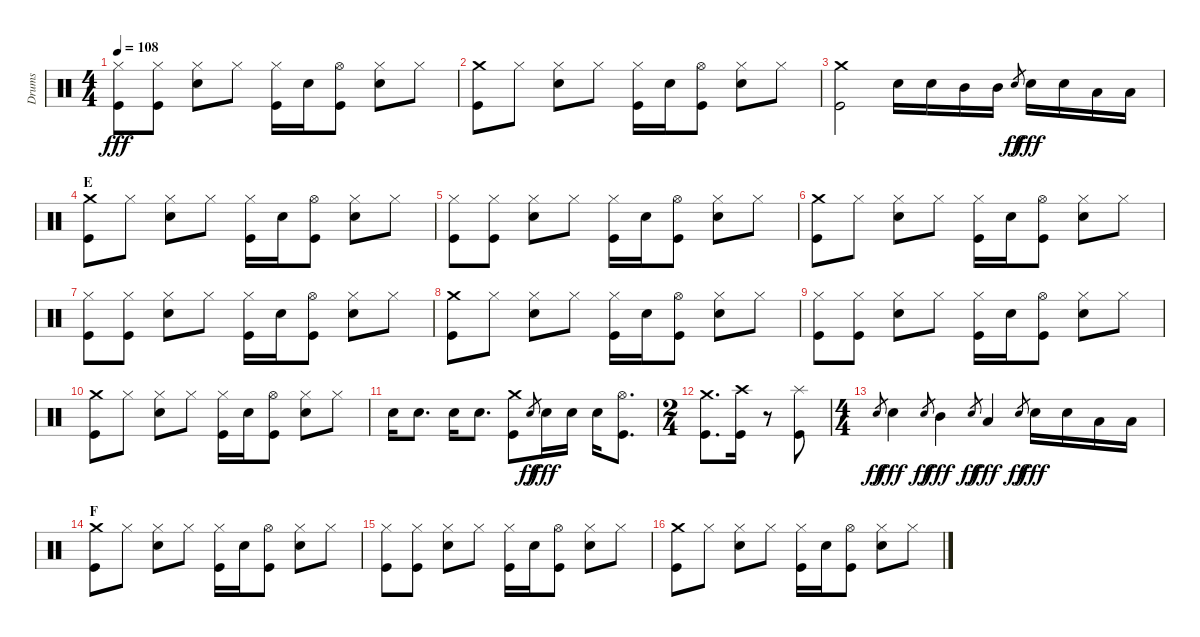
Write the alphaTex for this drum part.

\track ("Drums" "Drums") {instrument percussion}
\staff {score}
\articulation defaults
\ts (4 4)
\tempo 108
\clef neutral
\ks c
("Hi-Hat (closed)" "Kick (hit)").8{dy fff} ("Hi-Hat (closed)" "Kick (hit)").8 ("Hi-Hat (closed)" "Snare (hit) 2").8 "Hi-Hat (closed)".8 ("Hi-Hat (closed)" "Kick (hit)").16 "Snare (hit) 2".16 ("Hi-Hat (open)" "Kick (hit)").8 ("Hi-Hat (closed)" "Snare (hit) 2").8 "Hi-Hat (closed)".8 |
("Crash medium (hit)" "Kick (hit)").8 "Hi-Hat (closed)".8 ("Hi-Hat (closed)" "Snare (hit) 2").8 "Hi-Hat (closed)".8 ("Hi-Hat (closed)" "Kick (hit)").16 "Snare (hit) 2".16 ("Hi-Hat (open)" "Kick (hit)").8 ("Hi-Hat (closed)" "Snare (hit) 2").8 "Hi-Hat (closed)".8 |
("Crash medium (hit)" "Kick (hit)").2 "Snare (hit) 2".16 "Snare (hit) 2".16 "Mid Tom (hit)".16 "Mid Tom (hit)".16 "Snare (hit)".8{gr dy ff} "Snare (hit) 2".16{dy fff} "Snare (hit) 2".16 "Low Tom (hit)".16 "Low Tom (hit)".16 |
\section ("" "E")
("Crash medium (hit)" "Kick (hit)").8 "Hi-Hat (closed)".8 ("Hi-Hat (closed)" "Snare (hit) 2").8 "Hi-Hat (closed)".8 ("Hi-Hat (closed)" "Kick (hit)").16 "Snare (hit) 2".16 ("Hi-Hat (open)" "Kick (hit)").8 ("Hi-Hat (closed)" "Snare (hit) 2").8 "Hi-Hat (closed)".8 |
("Hi-Hat (closed)" "Kick (hit)").8 ("Hi-Hat (closed)" "Kick (hit)").8 ("Hi-Hat (closed)" "Snare (hit) 2").8 "Hi-Hat (closed)".8 ("Hi-Hat (closed)" "Kick (hit)").16 "Snare (hit) 2".16 ("Hi-Hat (open)" "Kick (hit)").8 ("Hi-Hat (closed)" "Snare (hit) 2").8 "Hi-Hat (closed)".8 |
("Crash medium (hit)" "Kick (hit)").8 "Hi-Hat (closed)".8 ("Hi-Hat (closed)" "Snare (hit) 2").8 "Hi-Hat (closed)".8 ("Hi-Hat (closed)" "Kick (hit)").16 "Snare (hit) 2".16 ("Hi-Hat (open)" "Kick (hit)").8 ("Hi-Hat (closed)" "Snare (hit) 2").8 "Hi-Hat (closed)".8 |
("Hi-Hat (closed)" "Kick (hit)").8 ("Hi-Hat (closed)" "Kick (hit)").8 ("Hi-Hat (closed)" "Snare (hit) 2").8 "Hi-Hat (closed)".8 ("Hi-Hat (closed)" "Kick (hit)").16 "Snare (hit) 2".16 ("Hi-Hat (open)" "Kick (hit)").8 ("Hi-Hat (closed)" "Snare (hit) 2").8 "Hi-Hat (closed)".8 |
("Crash medium (hit)" "Kick (hit)").8 "Hi-Hat (closed)".8 ("Hi-Hat (closed)" "Snare (hit) 2").8 "Hi-Hat (closed)".8 ("Hi-Hat (closed)" "Kick (hit)").16 "Snare (hit) 2".16 ("Hi-Hat (open)" "Kick (hit)").8 ("Hi-Hat (closed)" "Snare (hit) 2").8 "Hi-Hat (closed)".8 |
("Hi-Hat (closed)" "Kick (hit)").8 ("Hi-Hat (closed)" "Kick (hit)").8 ("Hi-Hat (closed)" "Snare (hit) 2").8 "Hi-Hat (closed)".8 ("Hi-Hat (closed)" "Kick (hit)").16 "Snare (hit) 2".16 ("Hi-Hat (open)" "Kick (hit)").8 ("Hi-Hat (closed)" "Snare (hit) 2").8 "Hi-Hat (closed)".8 |
("Crash medium (hit)" "Kick (hit)").8 "Hi-Hat (closed)".8 ("Hi-Hat (closed)" "Snare (hit) 2").8 "Hi-Hat (closed)".8 ("Hi-Hat (closed)" "Kick (hit)").16 "Snare (hit) 2".16 ("Hi-Hat (open)" "Kick (hit)").8 ("Hi-Hat (closed)" "Snare (hit) 2").8 "Hi-Hat (closed)".8 |
"Snare (hit) 2".16 "Snare (hit) 2".8{d} "Snare (hit) 2".16 "Snare (hit) 2".8{d} ("Crash medium (hit)" "Kick (hit)").8 "Snare (hit)".8{gr dy ff} "Snare (hit) 2".16{dy fff} "Snare (hit) 2".16 "Snare (hit) 2".16 ("Hi-Hat (open)" "Kick (hit)").8{d} |
\ts (2 4)
("Crash medium (hit)" "Kick (hit)").8{d} ("Crash high (hit)" "Kick (hit)").16 r.8 ("Splash (hit)" "Kick (hit)").8 |
\ts (4 4)
"Snare (hit)".8{gr dy ff} "Snare (hit) 2".4{dy fff} "Snare (hit)".8{gr dy ff} "Mid Tom (hit)".4{dy fff} "Snare (hit)".8{gr dy ff} "Low Tom (hit)".4{dy fff} "Snare (hit)".8{gr dy ff} "Snare (hit) 2".16{dy fff} "Snare (hit) 2".16 "Low Tom (hit)".16 "Low Tom (hit)".16 |
\section ("" "F")
("Crash medium (hit)" "Kick (hit)").8 "Hi-Hat (closed)".8 ("Hi-Hat (closed)" "Snare (hit) 2").8 "Hi-Hat (closed)".8 ("Hi-Hat (closed)" "Kick (hit)").16 "Snare (hit) 2".16 ("Hi-Hat (open)" "Kick (hit)").8 ("Hi-Hat (closed)" "Snare (hit) 2").8 "Hi-Hat (closed)".8 |
("Hi-Hat (closed)" "Kick (hit)").8 ("Hi-Hat (closed)" "Kick (hit)").8 ("Hi-Hat (closed)" "Snare (hit) 2").8 "Hi-Hat (closed)".8 ("Hi-Hat (closed)" "Kick (hit)").16 "Snare (hit) 2".16 ("Hi-Hat (open)" "Kick (hit)").8 ("Hi-Hat (closed)" "Snare (hit) 2").8 "Hi-Hat (closed)".8 |
("Crash medium (hit)" "Kick (hit)").8 "Hi-Hat (closed)".8 ("Hi-Hat (closed)" "Snare (hit) 2").8 "Hi-Hat (closed)".8 ("Hi-Hat (closed)" "Kick (hit)").16 "Snare (hit) 2".16 ("Hi-Hat (open)" "Kick (hit)").8 ("Hi-Hat (closed)" "Snare (hit) 2").8 "Hi-Hat (closed)".8
